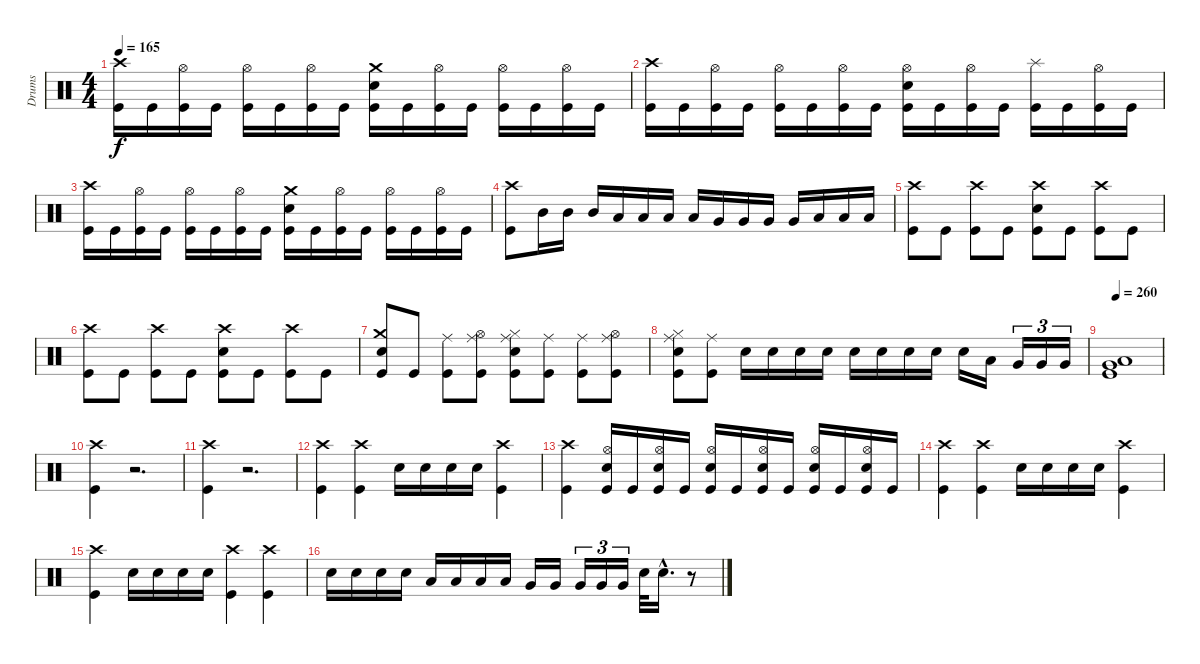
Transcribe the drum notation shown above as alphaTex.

\track ("Drums" "Drums") {instrument percussion}
\staff {score}
\articulation defaults
\ts (4 4)
\tempo 165
\clef neutral
\ks c
("Crash high (hit)" "Kick (hit)").16{dy f} "Kick (hit)".16 ("Hi-Hat (open)" "Kick (hit)").16 "Kick (hit)".16 ("Hi-Hat (open)" "Kick (hit)").16 "Kick (hit)".16 ("Hi-Hat (open)" "Kick (hit)").16 "Kick (hit)".16 ("Crash medium (hit)" "Electric Snare (hit)" "Kick (hit)").16 "Kick (hit)".16 ("Hi-Hat (open)" "Kick (hit)").16 "Kick (hit)".16 ("Hi-Hat (open)" "Kick (hit)").16 "Kick (hit)".16 ("Hi-Hat (open)" "Kick (hit)").16 "Kick (hit)".16 |
("Crash high (hit)" "Kick (hit)").16 "Kick (hit)".16 ("Hi-Hat (open)" "Kick (hit)").16 "Kick (hit)".16 ("Hi-Hat (open)" "Kick (hit)").16 "Kick (hit)".16 ("Hi-Hat (open)" "Kick (hit)").16 "Kick (hit)".16 ("Hi-Hat (open)" "Electric Snare (hit)" "Kick (hit)").16 "Kick (hit)".16 ("Hi-Hat (open)" "Kick (hit)").16 "Kick (hit)".16 ("Splash (hit)" "Kick (hit)").16 "Kick (hit)".16 ("Hi-Hat (open)" "Kick (hit)").16 "Kick (hit)".16 |
("Crash high (hit)" "Kick (hit)").16 "Kick (hit)".16 ("Hi-Hat (open)" "Kick (hit)").16 "Kick (hit)".16 ("Hi-Hat (open)" "Kick (hit)").16 "Kick (hit)".16 ("Hi-Hat (open)" "Kick (hit)").16 "Kick (hit)".16 ("Crash medium (hit)" "Electric Snare (hit)" "Kick (hit)").16 "Kick (hit)".16 ("Hi-Hat (open)" "Kick (hit)").16 "Kick (hit)".16 ("Hi-Hat (open)" "Kick (hit)").16 "Kick (hit)".16 ("Hi-Hat (open)" "Kick (hit)").16 "Kick (hit)".16 |
("Crash high (hit)" "Kick (hit)").8 "Mid Tom (hit)".16 "Mid Tom (hit)".16 "Mid Tom (hit)".16 "Low Tom (hit)".16 "Low Tom (hit)".16 "Low Tom (hit)".16 "Low Tom (hit)".16 "Very Low Tom (hit)".16 "Very Low Tom (hit)".16 "Very Low Tom (hit)".16 "Very Low Tom (hit)".16 "Low Floor Tom (hit)".16 "Low Floor Tom (hit)".16 "Low Floor Tom (hit)".16 |
("Crash high (hit)" "Kick (hit)").8 "Kick (hit)".8 ("Crash high (hit)" "Kick (hit)").8 "Kick (hit)".8 ("Crash high (hit)" "Electric Snare (hit)" "Kick (hit)").8 "Kick (hit)".8 ("Crash high (hit)" "Kick (hit)").8 "Kick (hit)".8 |
("Crash high (hit)" "Kick (hit)").8 "Kick (hit)".8 ("Crash high (hit)" "Kick (hit)").8 "Kick (hit)".8 ("Crash high (hit)" "Electric Snare (hit)" "Kick (hit)").8 "Kick (hit)".8 ("Crash high (hit)" "Kick (hit)").8 "Kick (hit)".8 |
("Crash medium (hit)" "Electric Snare (hit)" "Kick (hit)").8 "Kick (hit)".8 ("Ride (middle)" "Kick (hit)").8 ("Hi-Hat (open)" "Ride (middle)" "Kick (hit)").8 ("Hi-Hat (closed)" "Ride (middle)" "Electric Snare (hit)" "Kick (hit)").8 ("Ride (middle)" "Kick (hit)").8 ("Ride (middle)" "Kick (hit)").8 ("Hi-Hat (open)" "Ride (middle)" "Kick (hit)").8 |
("Hi-Hat (closed)" "Ride (middle)" "Electric Snare (hit)" "Kick (hit)").8 ("Ride (middle)" "Kick (hit)").8 "Electric Snare (hit)".16 "Electric Snare (hit)".16 "Electric Snare (hit)".16 "Electric Snare (hit)".16 "Electric Snare (hit)".16 "Electric Snare (hit)".16 "Electric Snare (hit)".16 "Electric Snare (hit)".16 "Electric Snare (hit)".16 "Low Tom (hit)".16 "Very Low Tom (hit)".16{tu (3 2)} "Very Low Tom (hit)".16{tu (3 2)} "Very Low Tom (hit)".16{tu (3 2)} |
\tempo 260
("Low Floor Tom (hit)" "Very Low Tom (hit)" "Kick (hit)").1 |
("Crash high (hit)" "Kick (hit)").4{volume 16} r.2{d volume 0} |
("Crash high (hit)" "Kick (hit)").4{volume 16} r.2{d volume 0} |
("Crash high (hit)" "Kick (hit)").4{volume 16} ("Crash high (hit)" "Kick (hit)").4 "Electric Snare (hit)".16 "Electric Snare (hit)".16 "Electric Snare (hit)".16 "Electric Snare (hit)".16 ("Crash high (hit)" "Kick (hit)").4 |
("Crash high (hit)" "Kick (hit)").4 ("Hi-Hat (open)" "Electric Snare (hit)" "Kick (hit)").16 "Kick (hit)".16 ("Hi-Hat (open)" "Electric Snare (hit)" "Kick (hit)").16 "Kick (hit)".16 ("Hi-Hat (open)" "Electric Snare (hit)" "Kick (hit)").16 "Kick (hit)".16 ("Hi-Hat (open)" "Electric Snare (hit)" "Kick (hit)").16 "Kick (hit)".16 ("Hi-Hat (open)" "Electric Snare (hit)" "Kick (hit)").16 "Kick (hit)".16 ("Hi-Hat (open)" "Electric Snare (hit)" "Kick (hit)").16 "Kick (hit)".16 |
("Crash high (hit)" "Kick (hit)").4 ("Crash high (hit)" "Kick (hit)").4 "Electric Snare (hit)".16 "Electric Snare (hit)".16 "Electric Snare (hit)".16 "Electric Snare (hit)".16 ("Crash high (hit)" "Kick (hit)").4 |
("Crash high (hit)" "Kick (hit)").4 "Electric Snare (hit)".16 "Electric Snare (hit)".16 "Electric Snare (hit)".16 "Electric Snare (hit)".16 ("Crash high (hit)" "Kick (hit)").4 ("Crash high (hit)" "Kick (hit)").4 |
"Electric Snare (hit)".16 "Electric Snare (hit)".16 "Electric Snare (hit)".16 "Electric Snare (hit)".16 "Low Tom (hit)".16 "Low Tom (hit)".16 "Low Tom (hit)".16 "Low Tom (hit)".16 "Very Low Tom (hit)".16 "Very Low Tom (hit)".16 "Very Low Tom (hit)".16{tu (3 2)} "Very Low Tom (hit)".16{tu (3 2)} "Very Low Tom (hit)".16{tu (3 2)} "Electric Snare (hit)".32 "Electric Snare (hit)"{hac}.16{d} r.8
